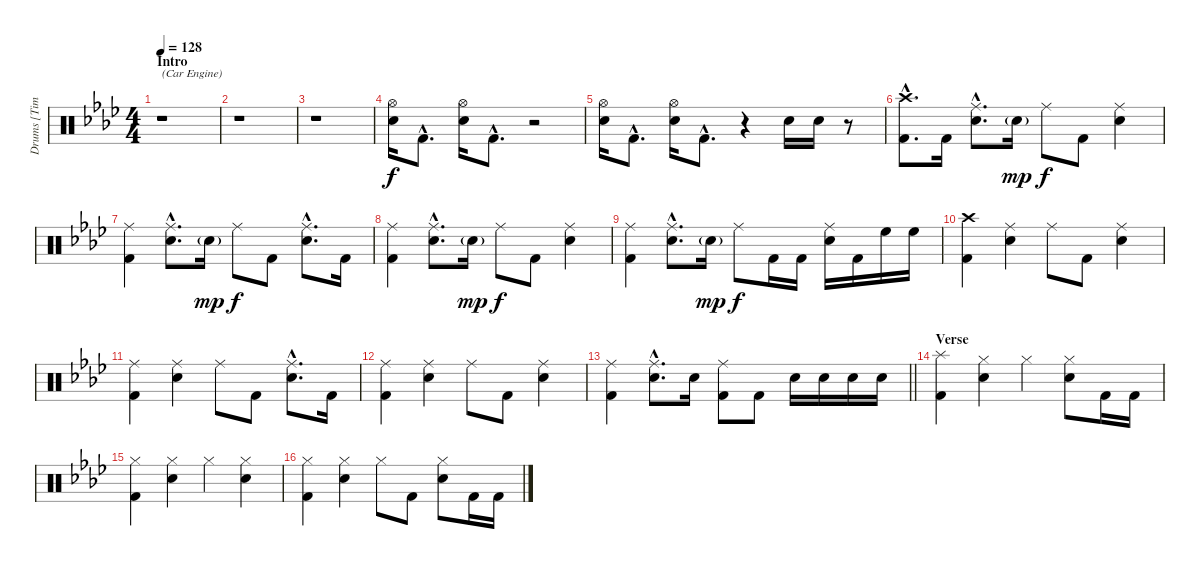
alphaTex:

\track ("Drums [Tim Alexander]" "Drums [Tim") {instrument percussion}
\staff {score}
\articulation defaults
\ts (4 4)
\section ("" "Intro")
\tempo 128
\clef neutral
\ks ab
r.1{txt "(Car Engine)" dy f} |
r.1 |
r.1 |
("Hi-Hat (open)" "Electric Snare (hit)").16 "Kick (hit) 2"{hac}.8{d} ("Hi-Hat (open)" "Electric Snare (hit)").16 "Kick (hit) 2"{hac}.8{d} r.2 |
("Hi-Hat (open)" "Electric Snare (hit)").16 "Kick (hit) 2"{hac}.8{d} ("Hi-Hat (open)" "Electric Snare (hit)").16 "Kick (hit) 2"{hac}.8{d} r.4 "Electric Snare (hit)".16 "Electric Snare (hit)".16 r.8 |
("Crash high (hit)"{hac} "Kick (hit) 2"{hac}).8{d} "Kick (hit) 2".16 ("Ride (middle)"{hac} "Electric Snare (hit)"{hac}).8{d} "Electric Snare (hit)"{g}.16{dy mp} "Ride (middle)".8{dy f} "Kick (hit) 2".8 ("Ride (middle)" "Electric Snare (hit)").4 |
("Ride (middle)" "Kick (hit) 2").4 ("Ride (middle)"{hac} "Electric Snare (hit)"{hac}).8{d} "Electric Snare (hit)"{g}.16{dy mp} "Ride (middle)".8{dy f} "Kick (hit) 2".8 ("Ride (middle)"{hac} "Electric Snare (hit)"{hac}).8{d} "Kick (hit) 2".16 |
("Ride (middle)" "Kick (hit) 2").4 ("Ride (middle)"{hac} "Electric Snare (hit)"{hac}).8{d} "Electric Snare (hit)"{g}.16{dy mp} "Ride (middle)".8{dy f} "Kick (hit) 2".8 ("Ride (middle)" "Electric Snare (hit)").4 |
("Ride (middle)" "Kick (hit) 2").4 ("Ride (middle)"{hac} "Electric Snare (hit)"{hac}).8{d} "Electric Snare (hit)"{g}.16{dy mp} "Ride (middle)".8{dy f} "Kick (hit) 2".16 "Kick (hit) 2".16 ("Ride (middle)" "Electric Snare (hit)").16 "Kick (hit) 2".16 "High Floor Tom (hit)".16 "High Floor Tom (hit)".16 |
("Crash high (hit)" "Kick (hit) 2").4 ("Ride (middle)" "Electric Snare (hit)").4 "Ride (middle)".8 "Kick (hit) 2".8 ("Ride (middle)" "Electric Snare (hit)").4 |
("Ride (middle)" "Kick (hit) 2").4 ("Ride (middle)" "Electric Snare (hit)").4 "Ride (middle)".8 "Kick (hit) 2".8 ("Ride (middle)"{hac} "Electric Snare (hit)"{hac}).8{d} "Kick (hit) 2".16 |
("Ride (middle)" "Kick (hit) 2").4 ("Ride (middle)" "Electric Snare (hit)").4 "Ride (middle)".8 "Kick (hit) 2".8 ("Ride (middle)" "Electric Snare (hit)").4 |
\barLineRight lightlight
("Ride (middle)" "Kick (hit) 2").4 ("Ride (middle)"{hac} "Electric Snare (hit)"{hac}).8{d} "Electric Snare (hit)".16 ("Ride (middle)" "Kick (hit) 2").8 "Kick (hit) 2".8 "Electric Snare (hit)".16 "Electric Snare (hit)".16 "Electric Snare (hit)".16 "Electric Snare (hit)".16 |
\section ("" "Verse")
("Splash (hit)" "Kick (hit) 2").4 ("Hi-Hat (closed)" "Electric Snare (hit)").4 "Hi-Hat (closed)".4 ("Hi-Hat (closed)" "Electric Snare (hit)").8 "Kick (hit) 2".16 "Kick (hit) 2".16 |
("Hi-Hat (closed)" "Kick (hit) 2").4 ("Hi-Hat (closed)" "Electric Snare (hit)").4 "Hi-Hat (closed)".4 ("Hi-Hat (closed)" "Electric Snare (hit)").4 |
("Hi-Hat (closed)" "Kick (hit) 2").4 ("Hi-Hat (closed)" "Electric Snare (hit)").4 "Hi-Hat (closed)".8 "Kick (hit) 2".8 ("Hi-Hat (closed)" "Electric Snare (hit)").8 "Kick (hit) 2".16 "Kick (hit) 2".16
